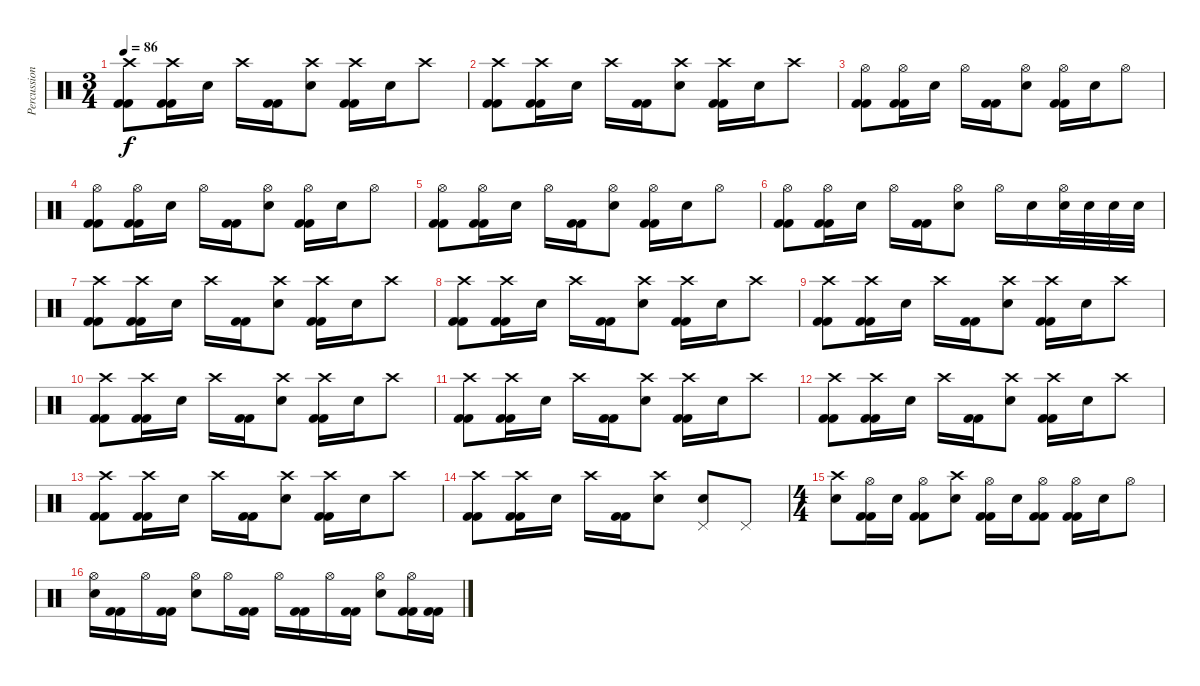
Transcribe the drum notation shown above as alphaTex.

\track ("Percussion" "Percussion") {instrument percussion}
\staff {score}
\articulation defaults
\ts (3 4)
\tempo 86
\clef neutral
\ks c
("Crash high (hit)" "Kick (hit) 2" "Kick (hit) 2").8{dy f} ("Crash high (hit)" "Kick (hit) 2" "Kick (hit) 2").16 "Snare (hit) 2".16 "Crash high (hit)".16 ("Kick (hit) 2" "Kick (hit) 2").16 ("Crash high (hit)" "Snare (hit) 2").8 ("Crash high (hit)" "Kick (hit) 2" "Kick (hit) 2").16 "Snare (hit) 2".16 "Crash high (hit)".8 |
("Crash high (hit)" "Kick (hit) 2" "Kick (hit) 2").8 ("Crash high (hit)" "Kick (hit) 2" "Kick (hit) 2").16 "Snare (hit) 2".16 "Crash high (hit)".16 ("Kick (hit) 2" "Kick (hit) 2").16 ("Crash high (hit)" "Snare (hit) 2").8 ("Crash high (hit)" "Kick (hit) 2" "Kick (hit) 2").16 "Snare (hit) 2".16 "Crash high (hit)".8 |
("Hi-Hat (open)" "Kick (hit) 2" "Kick (hit) 2").8 ("Hi-Hat (open)" "Kick (hit) 2" "Kick (hit) 2").16 "Snare (hit) 2".16 "Hi-Hat (open)".16 ("Kick (hit) 2" "Kick (hit) 2").16 ("Hi-Hat (open)" "Snare (hit) 2").8 ("Hi-Hat (open)" "Kick (hit) 2" "Kick (hit) 2").16 "Snare (hit) 2".16 "Hi-Hat (open)".8 |
("Hi-Hat (open)" "Kick (hit) 2" "Kick (hit) 2").8 ("Hi-Hat (open)" "Kick (hit) 2" "Kick (hit) 2").16 "Snare (hit) 2".16 "Hi-Hat (open)".16 ("Kick (hit) 2" "Kick (hit) 2").16 ("Hi-Hat (open)" "Snare (hit) 2").8 ("Hi-Hat (open)" "Kick (hit) 2" "Kick (hit) 2").16 "Snare (hit) 2".16 "Hi-Hat (open)".8 |
("Hi-Hat (open)" "Kick (hit) 2" "Kick (hit) 2").8 ("Hi-Hat (open)" "Kick (hit) 2" "Kick (hit) 2").16 "Snare (hit) 2".16 "Hi-Hat (open)".16 ("Kick (hit) 2" "Kick (hit) 2").16 ("Hi-Hat (open)" "Snare (hit) 2").8 ("Hi-Hat (open)" "Kick (hit) 2" "Kick (hit) 2").16 "Snare (hit) 2".16 "Hi-Hat (open)".8 |
("Hi-Hat (open)" "Kick (hit) 2" "Kick (hit) 2").8 ("Hi-Hat (open)" "Kick (hit) 2" "Kick (hit) 2").16 "Snare (hit) 2".16 "Hi-Hat (open)".16 ("Kick (hit) 2" "Kick (hit) 2").16 ("Hi-Hat (open)" "Snare (hit) 2").8 "Hi-Hat (open)".16 "Snare (hit) 2".16 ("Hi-Hat (open)" "Snare (hit) 2").32 "Snare (hit) 2".32 "Snare (hit) 2".32 "Snare (hit) 2".32 |
("Crash high (hit)" "Kick (hit) 2" "Kick (hit) 2").8 ("Crash high (hit)" "Kick (hit) 2" "Kick (hit) 2").16 "Snare (hit) 2".16 "Crash high (hit)".16 ("Kick (hit) 2" "Kick (hit) 2").16 ("Crash high (hit)" "Snare (hit) 2").8 ("Crash high (hit)" "Kick (hit) 2" "Kick (hit) 2").16 "Snare (hit) 2".16 "Crash high (hit)".8 |
("Crash high (hit)" "Kick (hit) 2" "Kick (hit) 2").8 ("Crash high (hit)" "Kick (hit) 2" "Kick (hit) 2").16 "Snare (hit) 2".16 "Crash high (hit)".16 ("Kick (hit) 2" "Kick (hit) 2").16 ("Crash high (hit)" "Snare (hit) 2").8 ("Crash high (hit)" "Kick (hit) 2" "Kick (hit) 2").16 "Snare (hit) 2".16 "Crash high (hit)".8 |
("Crash high (hit)" "Kick (hit) 2" "Kick (hit) 2").8 ("Crash high (hit)" "Kick (hit) 2" "Kick (hit) 2").16 "Snare (hit) 2".16 "Crash high (hit)".16 ("Kick (hit) 2" "Kick (hit) 2").16 ("Crash high (hit)" "Snare (hit) 2").8 ("Crash high (hit)" "Kick (hit) 2" "Kick (hit) 2").16 "Snare (hit) 2".16 "Crash high (hit)".8 |
("Crash high (hit)" "Kick (hit) 2" "Kick (hit) 2").8 ("Crash high (hit)" "Kick (hit) 2" "Kick (hit) 2").16 "Snare (hit) 2".16 "Crash high (hit)".16 ("Kick (hit) 2" "Kick (hit) 2").16 ("Crash high (hit)" "Snare (hit) 2").8 ("Crash high (hit)" "Kick (hit) 2" "Kick (hit) 2").16 "Snare (hit) 2".16 "Crash high (hit)".8 |
("Crash high (hit)" "Kick (hit) 2" "Kick (hit) 2").8 ("Crash high (hit)" "Kick (hit) 2" "Kick (hit) 2").16 "Snare (hit) 2".16 "Crash high (hit)".16 ("Kick (hit) 2" "Kick (hit) 2").16 ("Crash high (hit)" "Snare (hit) 2").8 ("Crash high (hit)" "Kick (hit) 2" "Kick (hit) 2").16 "Snare (hit) 2".16 "Crash high (hit)".8 |
("Crash high (hit)" "Kick (hit) 2" "Kick (hit) 2").8 ("Crash high (hit)" "Kick (hit) 2" "Kick (hit) 2").16 "Snare (hit) 2".16 "Crash high (hit)".16 ("Kick (hit) 2" "Kick (hit) 2").16 ("Crash high (hit)" "Snare (hit) 2").8 ("Crash high (hit)" "Kick (hit) 2" "Kick (hit) 2").16 "Snare (hit) 2".16 "Crash high (hit)".8 |
("Crash high (hit)" "Kick (hit) 2" "Kick (hit) 2").8 ("Crash high (hit)" "Kick (hit) 2" "Kick (hit) 2").16 "Snare (hit) 2".16 "Crash high (hit)".16 ("Kick (hit) 2" "Kick (hit) 2").16 ("Crash high (hit)" "Snare (hit) 2").8 ("Crash high (hit)" "Kick (hit) 2" "Kick (hit) 2").16 "Snare (hit) 2".16 "Crash high (hit)".8 |
("Crash high (hit)" "Kick (hit) 2" "Kick (hit) 2").8 ("Crash high (hit)" "Kick (hit) 2" "Kick (hit) 2").16 "Snare (hit) 2".16 "Crash high (hit)".16 ("Kick (hit) 2" "Kick (hit) 2").16 ("Crash high (hit)" "Snare (hit) 2").8 ("Pedal Hi-Hat (hit)" "Snare (hit) 2").8 "Pedal Hi-Hat (hit)".8 |
\ts (4 4)
("Crash high (hit)" "Snare (hit) 2").8 ("Hi-Hat (open)" "Kick (hit) 2" "Kick (hit) 2").16 "Snare (hit) 2".16 ("Hi-Hat (open)" "Kick (hit) 2" "Kick (hit) 2").8 ("Crash high (hit)" "Snare (hit) 2").8 ("Hi-Hat (open)" "Kick (hit) 2" "Kick (hit) 2").16 "Snare (hit) 2".16 ("Hi-Hat (open)" "Kick (hit) 2" "Kick (hit) 2").8 ("Hi-Hat (open)" "Kick (hit) 2" "Kick (hit) 2").16 "Snare (hit) 2".16 "Hi-Hat (open)".8 |
("Hi-Hat (open)" "Snare (hit) 2").16 ("Kick (hit) 2" "Kick (hit) 2").16 "Hi-Hat (open)".16 ("Kick (hit) 2" "Kick (hit) 2").16 ("Hi-Hat (open)" "Snare (hit) 2").8 "Hi-Hat (open)".16 ("Kick (hit) 2" "Kick (hit) 2").16 "Hi-Hat (open)".16 ("Kick (hit) 2" "Kick (hit) 2").16 "Hi-Hat (open)".16 ("Kick (hit) 2" "Kick (hit) 2").16 ("Hi-Hat (open)" "Snare (hit) 2").8 ("Hi-Hat (open)" "Kick (hit) 2" "Kick (hit) 2").16 ("Kick (hit) 2" "Kick (hit) 2").16
